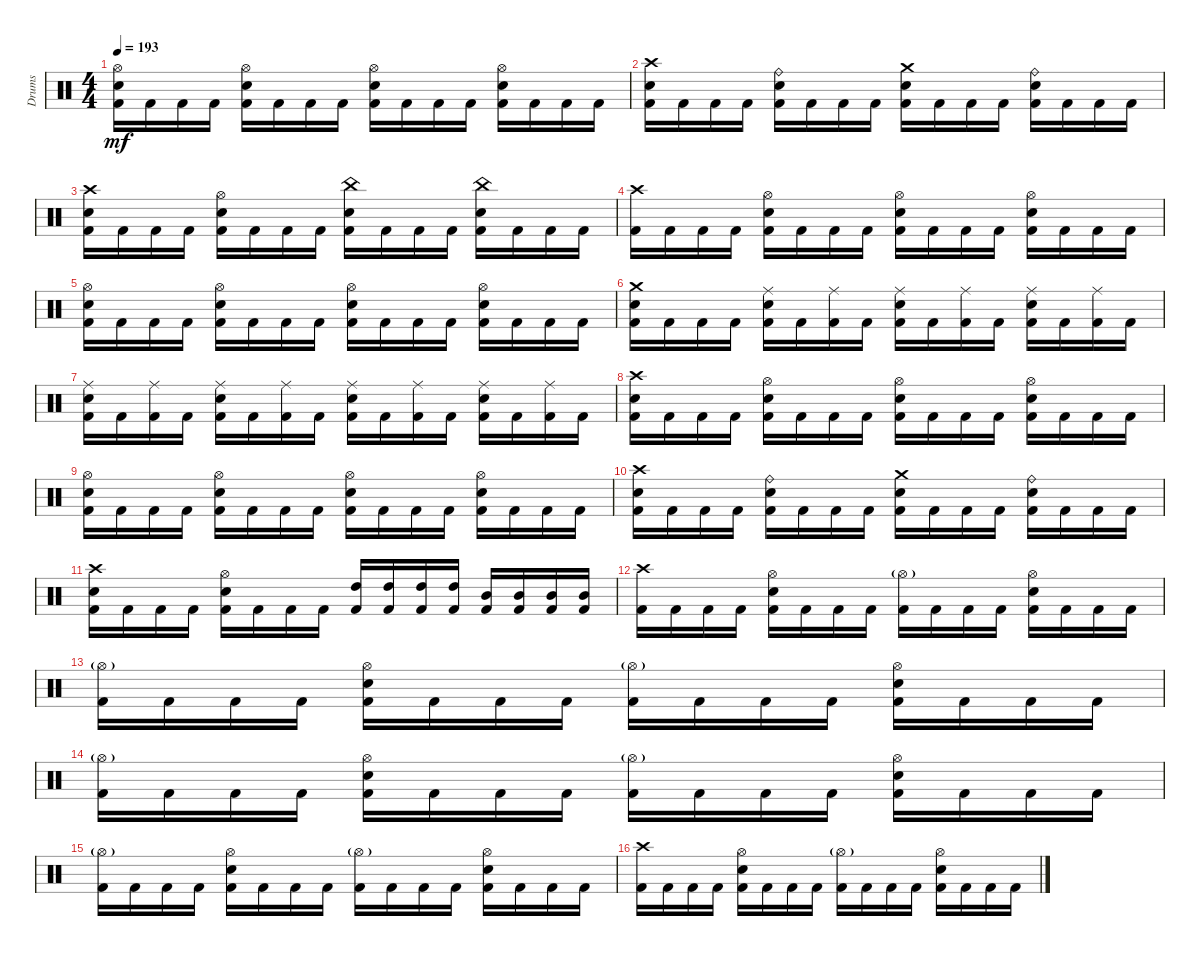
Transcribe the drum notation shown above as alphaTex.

\track ("Drums" "Drums") {instrument percussion}
\staff {score}
\articulation defaults
\ts (4 4)
\tempo 193
\clef neutral
\ks c
("Hi-Hat (open)" "Electric Snare (hit)" "Kick (hit) 2").16{dy mf} "Kick (hit) 2".16 "Kick (hit) 2".16 "Kick (hit) 2".16 ("Hi-Hat (open)" "Electric Snare (hit)" "Kick (hit) 2").16 "Kick (hit) 2".16 "Kick (hit) 2".16 "Kick (hit) 2".16 ("Hi-Hat (open)" "Electric Snare (hit)" "Kick (hit) 2").16 "Kick (hit) 2".16 "Kick (hit) 2".16 "Kick (hit) 2".16 ("Hi-Hat (open)" "Electric Snare (hit)" "Kick (hit) 2").16 "Kick (hit) 2".16 "Kick (hit) 2".16 "Kick (hit) 2".16 |
("Crash high (hit)" "Electric Snare (hit)" "Kick (hit) 2").16 "Kick (hit) 2".16 "Kick (hit) 2".16 "Kick (hit) 2".16 ("Ride (bell)" "Electric Snare (hit)" "Kick (hit) 2").16 "Kick (hit) 2".16 "Kick (hit) 2".16 "Kick (hit) 2".16 ("Crash medium (hit)" "Electric Snare (hit)" "Kick (hit) 2").16 "Kick (hit) 2".16 "Kick (hit) 2".16 "Kick (hit) 2".16 ("Ride (bell)" "Electric Snare (hit)" "Kick (hit) 2").16 "Kick (hit) 2".16 "Kick (hit) 2".16 "Kick (hit) 2".16 |
("Crash high (hit)" "Electric Snare (hit)" "Kick (hit) 2").16 "Kick (hit) 2".16 "Kick (hit) 2".16 "Kick (hit) 2".16 ("Hi-Hat (open)" "Electric Snare (hit)" "Kick (hit) 2").16 "Kick (hit) 2".16 "Kick (hit) 2".16 "Kick (hit) 2".16 ("China (hit)" "Electric Snare (hit)" "Kick (hit) 2").16 "Kick (hit) 2".16 "Kick (hit) 2".16 "Kick (hit) 2".16 ("China (hit)" "Electric Snare (hit)" "Kick (hit) 2").16 "Kick (hit) 2".16 "Kick (hit) 2".16 "Kick (hit) 2".16 |
("Crash high (hit)" "Kick (hit) 2").16 "Kick (hit) 2".16 "Kick (hit) 2".16 "Kick (hit) 2".16 ("Hi-Hat (open)" "Electric Snare (hit)" "Kick (hit) 2").16 "Kick (hit) 2".16 "Kick (hit) 2".16 "Kick (hit) 2".16 ("Hi-Hat (open)" "Electric Snare (hit)" "Kick (hit) 2").16 "Kick (hit) 2".16 "Kick (hit) 2".16 "Kick (hit) 2".16 ("Hi-Hat (open)" "Electric Snare (hit)" "Kick (hit) 2").16 "Kick (hit) 2".16 "Kick (hit) 2".16 "Kick (hit) 2".16 |
("Hi-Hat (open)" "Electric Snare (hit)" "Kick (hit) 2").16 "Kick (hit) 2".16 "Kick (hit) 2".16 "Kick (hit) 2".16 ("Hi-Hat (open)" "Electric Snare (hit)" "Kick (hit) 2").16 "Kick (hit) 2".16 "Kick (hit) 2".16 "Kick (hit) 2".16 ("Hi-Hat (open)" "Electric Snare (hit)" "Kick (hit) 2").16 "Kick (hit) 2".16 "Kick (hit) 2".16 "Kick (hit) 2".16 ("Hi-Hat (open)" "Electric Snare (hit)" "Kick (hit) 2").16 "Kick (hit) 2".16 "Kick (hit) 2".16 "Kick (hit) 2".16 |
("Crash medium (hit)" "Electric Snare (hit)" "Kick (hit) 2").16 "Kick (hit) 2".16 "Kick (hit) 2".16 "Kick (hit) 2".16 ("Ride (middle)" "Electric Snare (hit)" "Kick (hit) 2").16 "Kick (hit) 2".16 ("Ride (middle)" "Kick (hit) 2").16 "Kick (hit) 2".16 ("Ride (middle)" "Electric Snare (hit)" "Kick (hit) 2").16 "Kick (hit) 2".16 ("Ride (middle)" "Kick (hit) 2").16 "Kick (hit) 2".16 ("Ride (middle)" "Electric Snare (hit)" "Kick (hit) 2").16 "Kick (hit) 2".16 ("Ride (middle)" "Kick (hit) 2").16 "Kick (hit) 2".16 |
("Ride (middle)" "Electric Snare (hit)" "Kick (hit) 2").16 "Kick (hit) 2".16 ("Ride (middle)" "Kick (hit) 2").16 "Kick (hit) 2".16 ("Ride (middle)" "Electric Snare (hit)" "Kick (hit) 2").16 "Kick (hit) 2".16 ("Ride (middle)" "Kick (hit) 2").16 "Kick (hit) 2".16 ("Ride (middle)" "Electric Snare (hit)" "Kick (hit) 2").16 "Kick (hit) 2".16 ("Ride (middle)" "Kick (hit) 2").16 "Kick (hit) 2".16 ("Ride (middle)" "Electric Snare (hit)" "Kick (hit) 2").16 "Kick (hit) 2".16 ("Ride (middle)" "Kick (hit) 2").16 "Kick (hit) 2".16 |
("Crash high (hit)" "Electric Snare (hit)" "Kick (hit) 2").16 "Kick (hit) 2".16 "Kick (hit) 2".16 "Kick (hit) 2".16 ("Hi-Hat (open)" "Electric Snare (hit)" "Kick (hit) 2").16 "Kick (hit) 2".16 "Kick (hit) 2".16 "Kick (hit) 2".16 ("Hi-Hat (open)" "Electric Snare (hit)" "Kick (hit) 2").16 "Kick (hit) 2".16 "Kick (hit) 2".16 "Kick (hit) 2".16 ("Hi-Hat (open)" "Electric Snare (hit)" "Kick (hit) 2").16 "Kick (hit) 2".16 "Kick (hit) 2".16 "Kick (hit) 2".16 |
("Hi-Hat (open)" "Electric Snare (hit)" "Kick (hit) 2").16 "Kick (hit) 2".16 "Kick (hit) 2".16 "Kick (hit) 2".16 ("Hi-Hat (open)" "Electric Snare (hit)" "Kick (hit) 2").16 "Kick (hit) 2".16 "Kick (hit) 2".16 "Kick (hit) 2".16 ("Hi-Hat (open)" "Electric Snare (hit)" "Kick (hit) 2").16 "Kick (hit) 2".16 "Kick (hit) 2".16 "Kick (hit) 2".16 ("Hi-Hat (open)" "Electric Snare (hit)" "Kick (hit) 2").16 "Kick (hit) 2".16 "Kick (hit) 2".16 "Kick (hit) 2".16 |
("Crash high (hit)" "Electric Snare (hit)" "Kick (hit) 2").16 "Kick (hit) 2".16 "Kick (hit) 2".16 "Kick (hit) 2".16 ("Ride (bell)" "Electric Snare (hit)" "Kick (hit) 2").16 "Kick (hit) 2".16 "Kick (hit) 2".16 "Kick (hit) 2".16 ("Crash medium (hit)" "Electric Snare (hit)" "Kick (hit) 2").16 "Kick (hit) 2".16 "Kick (hit) 2".16 "Kick (hit) 2".16 ("Ride (bell)" "Electric Snare (hit)" "Kick (hit) 2").16 "Kick (hit) 2".16 "Kick (hit) 2".16 "Kick (hit) 2".16 |
("Crash high (hit)" "Electric Snare (hit)" "Kick (hit) 2").16 "Kick (hit) 2".16 "Kick (hit) 2".16 "Kick (hit) 2".16 ("Hi-Hat (open)" "Electric Snare (hit)" "Kick (hit) 2").16 "Kick (hit) 2".16 "Kick (hit) 2".16 "Kick (hit) 2".16 ("High Tom (hit)" "Kick (hit) 2").16 ("High Tom (hit)" "Kick (hit) 2").16 ("High Tom (hit)" "Kick (hit) 2").16 ("High Tom (hit)" "Kick (hit) 2").16 ("Mid Tom (hit)" "Kick (hit) 2").16 ("Mid Tom (hit)" "Kick (hit) 2").16 ("Mid Tom (hit)" "Kick (hit) 2").16 ("Mid Tom (hit)" "Kick (hit) 2").16 |
("Crash high (hit)" "Kick (hit) 2").16 "Kick (hit) 2".16 "Kick (hit) 2".16 "Kick (hit) 2".16 ("Hi-Hat (open)" "Electric Snare (hit)" "Kick (hit) 2").16 "Kick (hit) 2".16 "Kick (hit) 2".16 "Kick (hit) 2".16 ("Hi-Hat (open)"{g} "Kick (hit) 2").16 "Kick (hit) 2".16 "Kick (hit) 2".16 "Kick (hit) 2".16 ("Hi-Hat (open)" "Electric Snare (hit)" "Kick (hit) 2").16 "Kick (hit) 2".16 "Kick (hit) 2".16 "Kick (hit) 2".16 |
("Hi-Hat (open)"{g} "Kick (hit) 2").16 "Kick (hit) 2".16 "Kick (hit) 2".16 "Kick (hit) 2".16 ("Hi-Hat (open)" "Electric Snare (hit)" "Kick (hit) 2").16 "Kick (hit) 2".16 "Kick (hit) 2".16 "Kick (hit) 2".16 ("Hi-Hat (open)"{g} "Kick (hit) 2").16 "Kick (hit) 2".16 "Kick (hit) 2".16 "Kick (hit) 2".16 ("Hi-Hat (open)" "Electric Snare (hit)" "Kick (hit) 2").16 "Kick (hit) 2".16 "Kick (hit) 2".16 "Kick (hit) 2".16 |
("Hi-Hat (open)"{g} "Kick (hit) 2").16 "Kick (hit) 2".16 "Kick (hit) 2".16 "Kick (hit) 2".16 ("Hi-Hat (open)" "Electric Snare (hit)" "Kick (hit) 2").16 "Kick (hit) 2".16 "Kick (hit) 2".16 "Kick (hit) 2".16 ("Hi-Hat (open)"{g} "Kick (hit) 2").16 "Kick (hit) 2".16 "Kick (hit) 2".16 "Kick (hit) 2".16 ("Hi-Hat (open)" "Electric Snare (hit)" "Kick (hit) 2").16 "Kick (hit) 2".16 "Kick (hit) 2".16 "Kick (hit) 2".16 |
("Hi-Hat (open)"{g} "Kick (hit) 2").16 "Kick (hit) 2".16 "Kick (hit) 2".16 "Kick (hit) 2".16 ("Hi-Hat (open)" "Electric Snare (hit)" "Kick (hit) 2").16 "Kick (hit) 2".16 "Kick (hit) 2".16 "Kick (hit) 2".16 ("Hi-Hat (open)"{g} "Kick (hit) 2").16 "Kick (hit) 2".16 "Kick (hit) 2".16 "Kick (hit) 2".16 ("Hi-Hat (open)" "Electric Snare (hit)" "Kick (hit) 2").16 "Kick (hit) 2".16 "Kick (hit) 2".16 "Kick (hit) 2".16 |
("Crash high (hit)" "Kick (hit) 2").16 "Kick (hit) 2".16 "Kick (hit) 2".16 "Kick (hit) 2".16 ("Hi-Hat (open)" "Electric Snare (hit)" "Kick (hit) 2").16 "Kick (hit) 2".16 "Kick (hit) 2".16 "Kick (hit) 2".16 ("Hi-Hat (open)"{g} "Kick (hit) 2").16 "Kick (hit) 2".16 "Kick (hit) 2".16 "Kick (hit) 2".16 ("Hi-Hat (open)" "Electric Snare (hit)" "Kick (hit) 2").16 "Kick (hit) 2".16 "Kick (hit) 2".16 "Kick (hit) 2".16
